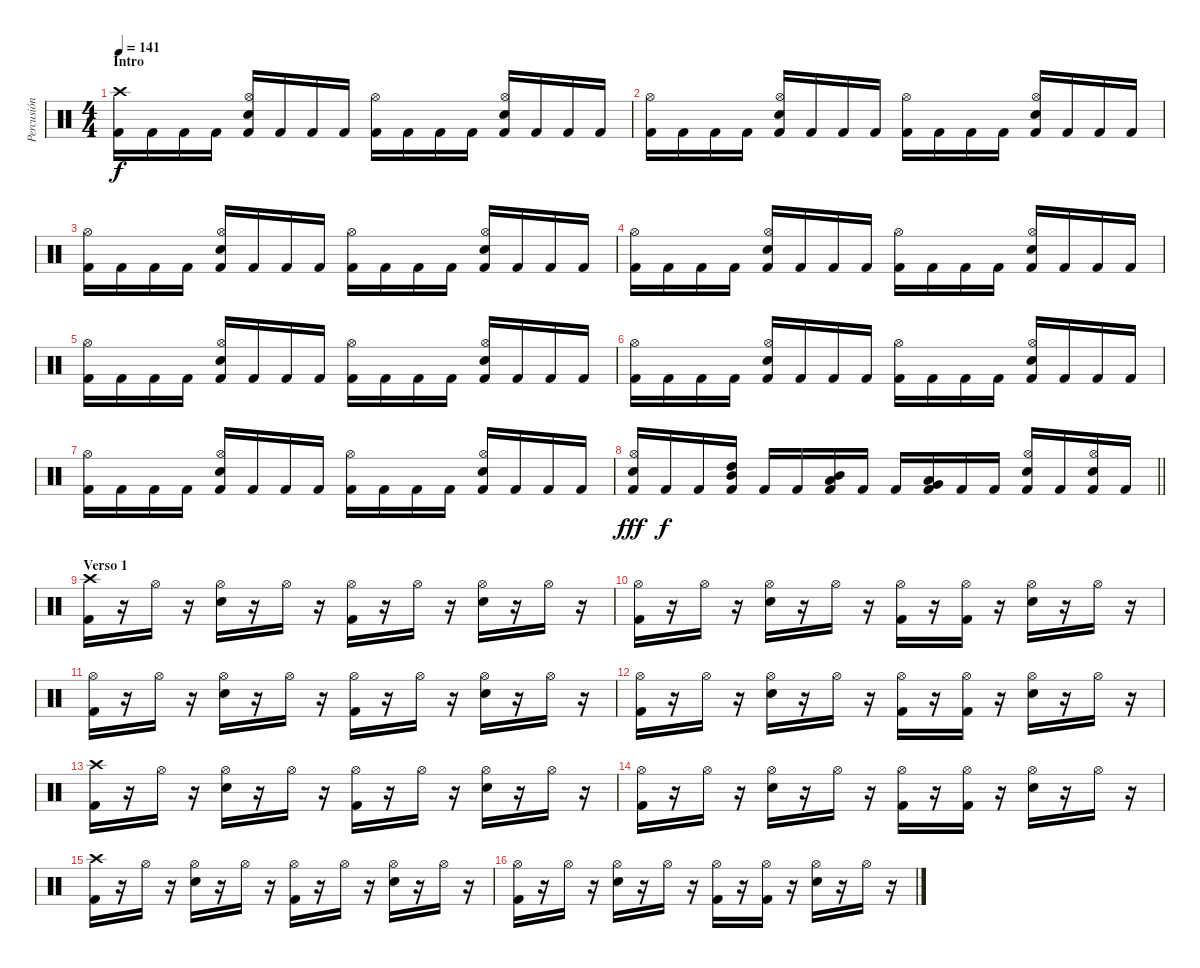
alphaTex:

\track ("Percusión" "Percusión") {instrument percussion}
\staff {score}
\articulation defaults
\ts (4 4)
\section ("" "Intro")
\tempo 141
\clef neutral
\ks c
("Crash high (hit)" "Kick (hit) 2").16{dy f} "Kick (hit) 2".16 "Kick (hit) 2".16 "Kick (hit) 2".16 ("Hi-Hat (open)" "Electric Snare (hit)" "Kick (hit) 2").16 "Kick (hit) 2".16 "Kick (hit) 2".16 "Kick (hit) 2".16 ("Hi-Hat (open)" "Kick (hit) 2").16 "Kick (hit) 2".16 "Kick (hit) 2".16 "Kick (hit) 2".16 ("Hi-Hat (open)" "Electric Snare (hit)" "Kick (hit) 2").16 "Kick (hit) 2".16 "Kick (hit) 2".16 "Kick (hit) 2".16 |
("Hi-Hat (open)" "Kick (hit) 2").16 "Kick (hit) 2".16 "Kick (hit) 2".16 "Kick (hit) 2".16 ("Hi-Hat (open)" "Electric Snare (hit)" "Kick (hit) 2").16 "Kick (hit) 2".16 "Kick (hit) 2".16 "Kick (hit) 2".16 ("Hi-Hat (open)" "Kick (hit) 2").16 "Kick (hit) 2".16 "Kick (hit) 2".16 "Kick (hit) 2".16 ("Hi-Hat (open)" "Electric Snare (hit)" "Kick (hit) 2").16 "Kick (hit) 2".16 "Kick (hit) 2".16 "Kick (hit) 2".16 |
("Hi-Hat (open)" "Kick (hit) 2").16 "Kick (hit) 2".16 "Kick (hit) 2".16 "Kick (hit) 2".16 ("Hi-Hat (open)" "Electric Snare (hit)" "Kick (hit) 2").16 "Kick (hit) 2".16 "Kick (hit) 2".16 "Kick (hit) 2".16 ("Hi-Hat (open)" "Kick (hit) 2").16 "Kick (hit) 2".16 "Kick (hit) 2".16 "Kick (hit) 2".16 ("Hi-Hat (open)" "Electric Snare (hit)" "Kick (hit) 2").16 "Kick (hit) 2".16 "Kick (hit) 2".16 "Kick (hit) 2".16 |
("Hi-Hat (open)" "Kick (hit) 2").16 "Kick (hit) 2".16 "Kick (hit) 2".16 "Kick (hit) 2".16 ("Hi-Hat (open)" "Electric Snare (hit)" "Kick (hit) 2").16 "Kick (hit) 2".16 "Kick (hit) 2".16 "Kick (hit) 2".16 ("Hi-Hat (open)" "Kick (hit) 2").16 "Kick (hit) 2".16 "Kick (hit) 2".16 "Kick (hit) 2".16 ("Hi-Hat (open)" "Electric Snare (hit)" "Kick (hit) 2").16 "Kick (hit) 2".16 "Kick (hit) 2".16 "Kick (hit) 2".16 |
("Hi-Hat (open)" "Kick (hit) 2").16 "Kick (hit) 2".16 "Kick (hit) 2".16 "Kick (hit) 2".16 ("Hi-Hat (open)" "Electric Snare (hit)" "Kick (hit) 2").16 "Kick (hit) 2".16 "Kick (hit) 2".16 "Kick (hit) 2".16 ("Hi-Hat (open)" "Kick (hit) 2").16 "Kick (hit) 2".16 "Kick (hit) 2".16 "Kick (hit) 2".16 ("Hi-Hat (open)" "Electric Snare (hit)" "Kick (hit) 2").16 "Kick (hit) 2".16 "Kick (hit) 2".16 "Kick (hit) 2".16 |
("Hi-Hat (open)" "Kick (hit) 2").16 "Kick (hit) 2".16 "Kick (hit) 2".16 "Kick (hit) 2".16 ("Hi-Hat (open)" "Electric Snare (hit)" "Kick (hit) 2").16 "Kick (hit) 2".16 "Kick (hit) 2".16 "Kick (hit) 2".16 ("Hi-Hat (open)" "Kick (hit) 2").16 "Kick (hit) 2".16 "Kick (hit) 2".16 "Kick (hit) 2".16 ("Hi-Hat (open)" "Electric Snare (hit)" "Kick (hit) 2").16 "Kick (hit) 2".16 "Kick (hit) 2".16 "Kick (hit) 2".16 |
("Hi-Hat (open)" "Kick (hit) 2").16 "Kick (hit) 2".16 "Kick (hit) 2".16 "Kick (hit) 2".16 ("Hi-Hat (open)" "Electric Snare (hit)" "Kick (hit) 2").16 "Kick (hit) 2".16 "Kick (hit) 2".16 "Kick (hit) 2".16 ("Hi-Hat (open)" "Kick (hit) 2").16 "Kick (hit) 2".16 "Kick (hit) 2".16 "Kick (hit) 2".16 ("Hi-Hat (open)" "Electric Snare (hit)" "Kick (hit) 2").16 "Kick (hit) 2".16 "Kick (hit) 2".16 "Kick (hit) 2".16 |
\barLineRight lightlight
("Hi-Hat (open)" "Electric Snare (hit)" "Kick (hit) 2").16{dy fff} "Kick (hit) 2".16{dy f} "Kick (hit) 2".16 ("High Tom (hit)" "Mid Tom (hit)" "Kick (hit) 2").16 "Kick (hit) 2".16 "Kick (hit) 2".16 ("Mid Tom (hit)" "Low Tom (hit)" "Kick (hit) 2").16 "Kick (hit) 2".16 "Kick (hit) 2".16 ("Low Tom (hit)" "Very Low Tom (hit)" "Kick (hit) 2").16 "Kick (hit) 2".16 "Kick (hit) 2".16 ("Hi-Hat (open)" "Electric Snare (hit)" "Kick (hit) 2").16 "Kick (hit) 2".16 ("Hi-Hat (open)" "Electric Snare (hit)" "Kick (hit) 2").16 "Kick (hit) 2".16 |
\section ("" "Verso 1")
("Crash high (hit)" "Kick (hit) 2").16 r.16 "Hi-Hat (open)".16 r.16 ("Hi-Hat (open)" "Electric Snare (hit)").16 r.16 "Hi-Hat (open)".16 r.16 ("Hi-Hat (open)" "Kick (hit) 2").16 r.16 "Hi-Hat (open)".16 r.16 ("Hi-Hat (open)" "Electric Snare (hit)").16 r.16 "Hi-Hat (open)".16 r.16 |
("Hi-Hat (open)" "Kick (hit) 2").16 r.16 "Hi-Hat (open)".16 r.16 ("Hi-Hat (open)" "Electric Snare (hit)").16 r.16 "Hi-Hat (open)".16 r.16 ("Hi-Hat (open)" "Kick (hit) 2").16 r.16 ("Hi-Hat (open)" "Kick (hit) 2").16 r.16 ("Hi-Hat (open)" "Electric Snare (hit)").16 r.16 "Hi-Hat (open)".16 r.16 |
("Hi-Hat (open)" "Kick (hit) 2").16 r.16 "Hi-Hat (open)".16 r.16 ("Hi-Hat (open)" "Electric Snare (hit)").16 r.16 "Hi-Hat (open)".16 r.16 ("Hi-Hat (open)" "Kick (hit) 2").16 r.16 "Hi-Hat (open)".16 r.16 ("Hi-Hat (open)" "Electric Snare (hit)").16 r.16 "Hi-Hat (open)".16 r.16 |
("Hi-Hat (open)" "Kick (hit) 2").16 r.16 "Hi-Hat (open)".16 r.16 ("Hi-Hat (open)" "Electric Snare (hit)").16 r.16 "Hi-Hat (open)".16 r.16 ("Hi-Hat (open)" "Kick (hit) 2").16 r.16 ("Hi-Hat (open)" "Kick (hit) 2").16 r.16 ("Hi-Hat (open)" "Electric Snare (hit)").16 r.16 "Hi-Hat (open)".16 r.16 |
("Crash high (hit)" "Kick (hit) 2").16 r.16 "Hi-Hat (open)".16 r.16 ("Hi-Hat (open)" "Electric Snare (hit)").16 r.16 "Hi-Hat (open)".16 r.16 ("Hi-Hat (open)" "Kick (hit) 2").16 r.16 "Hi-Hat (open)".16 r.16 ("Hi-Hat (open)" "Electric Snare (hit)").16 r.16 "Hi-Hat (open)".16 r.16 |
("Hi-Hat (open)" "Kick (hit) 2").16 r.16 "Hi-Hat (open)".16 r.16 ("Hi-Hat (open)" "Electric Snare (hit)").16 r.16 "Hi-Hat (open)".16 r.16 ("Hi-Hat (open)" "Kick (hit) 2").16 r.16 ("Hi-Hat (open)" "Kick (hit) 2").16 r.16 ("Hi-Hat (open)" "Electric Snare (hit)").16 r.16 "Hi-Hat (open)".16 r.16 |
("Crash high (hit)" "Kick (hit) 2").16 r.16 "Hi-Hat (open)".16 r.16 ("Hi-Hat (open)" "Electric Snare (hit)").16 r.16 "Hi-Hat (open)".16 r.16 ("Hi-Hat (open)" "Kick (hit) 2").16 r.16 "Hi-Hat (open)".16 r.16 ("Hi-Hat (open)" "Electric Snare (hit)").16 r.16 "Hi-Hat (open)".16 r.16 |
("Hi-Hat (open)" "Kick (hit) 2").16 r.16 "Hi-Hat (open)".16 r.16 ("Hi-Hat (open)" "Electric Snare (hit)").16 r.16 "Hi-Hat (open)".16 r.16 ("Hi-Hat (open)" "Kick (hit) 2").16 r.16 ("Hi-Hat (open)" "Kick (hit) 2").16 r.16 ("Hi-Hat (open)" "Electric Snare (hit)").16 r.16 "Hi-Hat (open)".16 r.16
